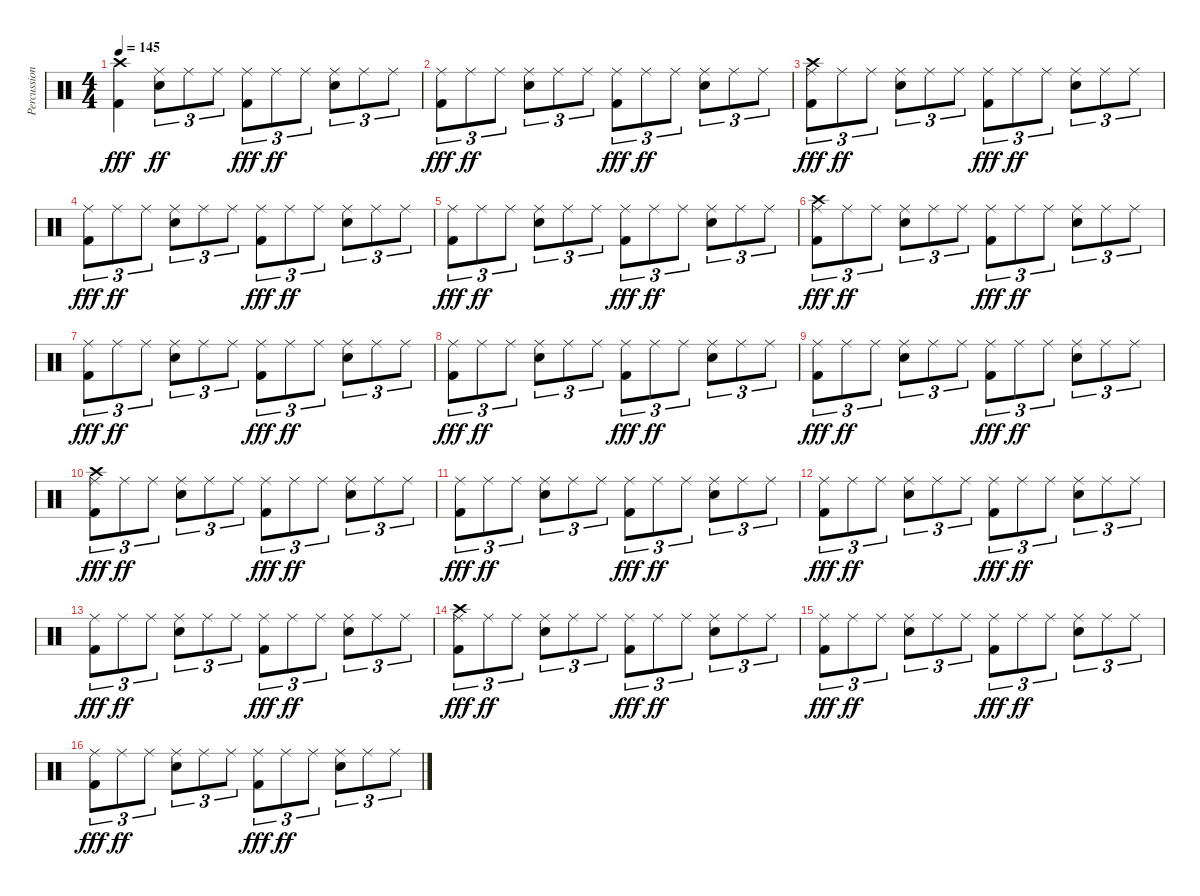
\track ("Percussion" "Percussion") {instrument percussion}
\staff {score}
\articulation defaults
\ts (4 4)
\tempo 145
\clef neutral
\ks c
("Crash high (hit)" "Kick (hit) 2").4{dy fff} ("Ride (middle)" "Snare (hit) 2").8{tu (3 2) dy ff} "Ride (middle)".8{tu (3 2)} "Ride (middle)".8{tu (3 2)} ("Ride (middle)" "Kick (hit) 2").8{tu (3 2) dy fff} "Ride (middle)".8{tu (3 2) dy ff} "Ride (middle)".8{tu (3 2)} ("Ride (middle)" "Snare (hit) 2").8{tu (3 2)} "Ride (middle)".8{tu (3 2)} "Ride (middle)".8{tu (3 2)} |
("Ride (middle)" "Kick (hit) 2").8{tu (3 2) dy fff} "Ride (middle)".8{tu (3 2) dy ff} "Ride (middle)".8{tu (3 2)} ("Ride (middle)" "Snare (hit) 2").8{tu (3 2)} "Ride (middle)".8{tu (3 2)} "Ride (middle)".8{tu (3 2)} ("Ride (middle)" "Kick (hit) 2").8{tu (3 2) dy fff} "Ride (middle)".8{tu (3 2) dy ff} "Ride (middle)".8{tu (3 2)} ("Ride (middle)" "Snare (hit) 2").8{tu (3 2)} "Ride (middle)".8{tu (3 2)} "Ride (middle)".8{tu (3 2)} |
("Crash high (hit)" "Ride (middle)" "Kick (hit) 2").8{tu (3 2) dy fff} "Ride (middle)".8{tu (3 2) dy ff} "Ride (middle)".8{tu (3 2)} ("Ride (middle)" "Snare (hit) 2").8{tu (3 2)} "Ride (middle)".8{tu (3 2)} "Ride (middle)".8{tu (3 2)} ("Ride (middle)" "Kick (hit) 2").8{tu (3 2) dy fff} "Ride (middle)".8{tu (3 2) dy ff} "Ride (middle)".8{tu (3 2)} ("Ride (middle)" "Snare (hit) 2").8{tu (3 2)} "Ride (middle)".8{tu (3 2)} "Ride (middle)".8{tu (3 2)} |
("Ride (middle)" "Kick (hit) 2").8{tu (3 2) dy fff} "Ride (middle)".8{tu (3 2) dy ff} "Ride (middle)".8{tu (3 2)} ("Ride (middle)" "Snare (hit) 2").8{tu (3 2)} "Ride (middle)".8{tu (3 2)} "Ride (middle)".8{tu (3 2)} ("Ride (middle)" "Kick (hit) 2").8{tu (3 2) dy fff} "Ride (middle)".8{tu (3 2) dy ff} "Ride (middle)".8{tu (3 2)} ("Ride (middle)" "Snare (hit) 2").8{tu (3 2)} "Ride (middle)".8{tu (3 2)} "Ride (middle)".8{tu (3 2)} |
("Ride (middle)" "Kick (hit) 2").8{tu (3 2) dy fff} "Ride (middle)".8{tu (3 2) dy ff} "Ride (middle)".8{tu (3 2)} ("Ride (middle)" "Snare (hit) 2").8{tu (3 2)} "Ride (middle)".8{tu (3 2)} "Ride (middle)".8{tu (3 2)} ("Ride (middle)" "Kick (hit) 2").8{tu (3 2) dy fff} "Ride (middle)".8{tu (3 2) dy ff} "Ride (middle)".8{tu (3 2)} ("Ride (middle)" "Snare (hit) 2").8{tu (3 2)} "Ride (middle)".8{tu (3 2)} "Ride (middle)".8{tu (3 2)} |
("Crash high (hit)" "Ride (middle)" "Kick (hit) 2").8{tu (3 2) dy fff} "Ride (middle)".8{tu (3 2) dy ff} "Ride (middle)".8{tu (3 2)} ("Ride (middle)" "Snare (hit) 2").8{tu (3 2)} "Ride (middle)".8{tu (3 2)} "Ride (middle)".8{tu (3 2)} ("Ride (middle)" "Kick (hit) 2").8{tu (3 2) dy fff} "Ride (middle)".8{tu (3 2) dy ff} "Ride (middle)".8{tu (3 2)} ("Ride (middle)" "Snare (hit) 2").8{tu (3 2)} "Ride (middle)".8{tu (3 2)} "Ride (middle)".8{tu (3 2)} |
("Ride (middle)" "Kick (hit) 2").8{tu (3 2) dy fff} "Ride (middle)".8{tu (3 2) dy ff} "Ride (middle)".8{tu (3 2)} ("Ride (middle)" "Snare (hit) 2").8{tu (3 2)} "Ride (middle)".8{tu (3 2)} "Ride (middle)".8{tu (3 2)} ("Ride (middle)" "Kick (hit) 2").8{tu (3 2) dy fff} "Ride (middle)".8{tu (3 2) dy ff} "Ride (middle)".8{tu (3 2)} ("Ride (middle)" "Snare (hit) 2").8{tu (3 2)} "Ride (middle)".8{tu (3 2)} "Ride (middle)".8{tu (3 2)} |
("Ride (middle)" "Kick (hit) 2").8{tu (3 2) dy fff} "Ride (middle)".8{tu (3 2) dy ff} "Ride (middle)".8{tu (3 2)} ("Ride (middle)" "Snare (hit) 2").8{tu (3 2)} "Ride (middle)".8{tu (3 2)} "Ride (middle)".8{tu (3 2)} ("Ride (middle)" "Kick (hit) 2").8{tu (3 2) dy fff} "Ride (middle)".8{tu (3 2) dy ff} "Ride (middle)".8{tu (3 2)} ("Ride (middle)" "Snare (hit) 2").8{tu (3 2)} "Ride (middle)".8{tu (3 2)} "Ride (middle)".8{tu (3 2)} |
("Ride (middle)" "Kick (hit) 2").8{tu (3 2) dy fff} "Ride (middle)".8{tu (3 2) dy ff} "Ride (middle)".8{tu (3 2)} ("Ride (middle)" "Snare (hit) 2").8{tu (3 2)} "Ride (middle)".8{tu (3 2)} "Ride (middle)".8{tu (3 2)} ("Ride (middle)" "Kick (hit) 2").8{tu (3 2) dy fff} "Ride (middle)".8{tu (3 2) dy ff} "Ride (middle)".8{tu (3 2)} ("Ride (middle)" "Snare (hit) 2").8{tu (3 2)} "Ride (middle)".8{tu (3 2)} "Ride (middle)".8{tu (3 2)} |
("Crash high (hit)" "Ride (middle)" "Kick (hit) 2").8{tu (3 2) dy fff} "Ride (middle)".8{tu (3 2) dy ff} "Ride (middle)".8{tu (3 2)} ("Ride (middle)" "Snare (hit) 2").8{tu (3 2)} "Ride (middle)".8{tu (3 2)} "Ride (middle)".8{tu (3 2)} ("Ride (middle)" "Kick (hit) 2").8{tu (3 2) dy fff} "Ride (middle)".8{tu (3 2) dy ff} "Ride (middle)".8{tu (3 2)} ("Ride (middle)" "Snare (hit) 2").8{tu (3 2)} "Ride (middle)".8{tu (3 2)} "Ride (middle)".8{tu (3 2)} |
("Ride (middle)" "Kick (hit) 2").8{tu (3 2) dy fff} "Ride (middle)".8{tu (3 2) dy ff} "Ride (middle)".8{tu (3 2)} ("Ride (middle)" "Snare (hit) 2").8{tu (3 2)} "Ride (middle)".8{tu (3 2)} "Ride (middle)".8{tu (3 2)} ("Ride (middle)" "Kick (hit) 2").8{tu (3 2) dy fff} "Ride (middle)".8{tu (3 2) dy ff} "Ride (middle)".8{tu (3 2)} ("Ride (middle)" "Snare (hit) 2").8{tu (3 2)} "Ride (middle)".8{tu (3 2)} "Ride (middle)".8{tu (3 2)} |
("Ride (middle)" "Kick (hit) 2").8{tu (3 2) dy fff} "Ride (middle)".8{tu (3 2) dy ff} "Ride (middle)".8{tu (3 2)} ("Ride (middle)" "Snare (hit) 2").8{tu (3 2)} "Ride (middle)".8{tu (3 2)} "Ride (middle)".8{tu (3 2)} ("Ride (middle)" "Kick (hit) 2").8{tu (3 2) dy fff} "Ride (middle)".8{tu (3 2) dy ff} "Ride (middle)".8{tu (3 2)} ("Ride (middle)" "Snare (hit) 2").8{tu (3 2)} "Ride (middle)".8{tu (3 2)} "Ride (middle)".8{tu (3 2)} |
("Ride (middle)" "Kick (hit) 2").8{tu (3 2) dy fff} "Ride (middle)".8{tu (3 2) dy ff} "Ride (middle)".8{tu (3 2)} ("Ride (middle)" "Snare (hit) 2").8{tu (3 2)} "Ride (middle)".8{tu (3 2)} "Ride (middle)".8{tu (3 2)} ("Ride (middle)" "Kick (hit) 2").8{tu (3 2) dy fff} "Ride (middle)".8{tu (3 2) dy ff} "Ride (middle)".8{tu (3 2)} ("Ride (middle)" "Snare (hit) 2").8{tu (3 2)} "Ride (middle)".8{tu (3 2)} "Ride (middle)".8{tu (3 2)} |
("Crash high (hit)" "Ride (middle)" "Kick (hit) 2").8{tu (3 2) dy fff} "Ride (middle)".8{tu (3 2) dy ff} "Ride (middle)".8{tu (3 2)} ("Ride (middle)" "Snare (hit) 2").8{tu (3 2)} "Ride (middle)".8{tu (3 2)} "Ride (middle)".8{tu (3 2)} ("Ride (middle)" "Kick (hit) 2").8{tu (3 2) dy fff} "Ride (middle)".8{tu (3 2) dy ff} "Ride (middle)".8{tu (3 2)} ("Ride (middle)" "Snare (hit) 2").8{tu (3 2)} "Ride (middle)".8{tu (3 2)} "Ride (middle)".8{tu (3 2)} |
("Ride (middle)" "Kick (hit) 2").8{tu (3 2) dy fff} "Ride (middle)".8{tu (3 2) dy ff} "Ride (middle)".8{tu (3 2)} ("Ride (middle)" "Snare (hit) 2").8{tu (3 2)} "Ride (middle)".8{tu (3 2)} "Ride (middle)".8{tu (3 2)} ("Ride (middle)" "Kick (hit) 2").8{tu (3 2) dy fff} "Ride (middle)".8{tu (3 2) dy ff} "Ride (middle)".8{tu (3 2)} ("Ride (middle)" "Snare (hit) 2").8{tu (3 2)} "Ride (middle)".8{tu (3 2)} "Ride (middle)".8{tu (3 2)} |
("Ride (middle)" "Kick (hit) 2").8{tu (3 2) dy fff} "Ride (middle)".8{tu (3 2) dy ff} "Ride (middle)".8{tu (3 2)} ("Ride (middle)" "Snare (hit) 2").8{tu (3 2)} "Ride (middle)".8{tu (3 2)} "Ride (middle)".8{tu (3 2)} ("Ride (middle)" "Kick (hit) 2").8{tu (3 2) dy fff} "Ride (middle)".8{tu (3 2) dy ff} "Ride (middle)".8{tu (3 2)} ("Ride (middle)" "Snare (hit) 2").8{tu (3 2)} "Ride (middle)".8{tu (3 2)} "Ride (middle)".8{tu (3 2)}
